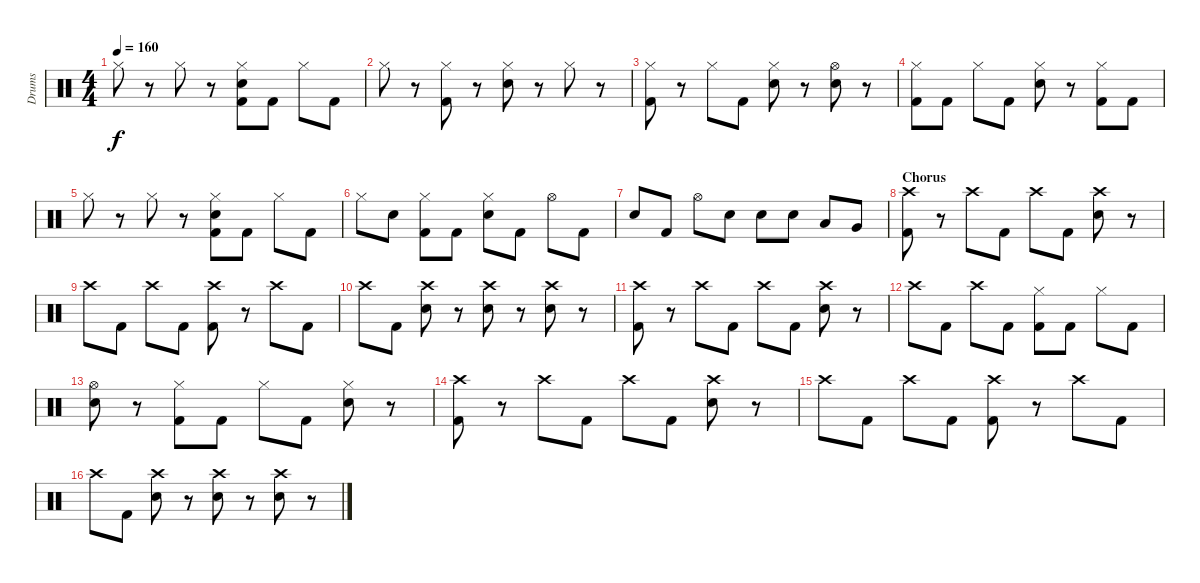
\track ("Drums" "Drums") {instrument percussion}
\staff {score}
\articulation defaults
\ts (4 4)
\tempo 160
\clef neutral
\ks c "Hi-Hat (closed)".8{dy f}
r.8 "Hi-Hat (closed)".8 r.8 ("Electric Snare (hit)" "Kick (hit) 2" "Hi-Hat (closed)").8 "Kick (hit) 2".8 "Hi-Hat (closed)".8 "Kick (hit) 2".8 |
"Hi-Hat (closed)".8 r.8 ("Kick (hit) 2" "Hi-Hat (closed)").8 r.8 ("Electric Snare (hit)" "Hi-Hat (closed)").8 r.8 "Hi-Hat (closed)".8 r.8 |
("Kick (hit) 2" "Hi-Hat (closed)").8 r.8 "Hi-Hat (closed)".8 "Kick (hit) 2".8 ("Electric Snare (hit)" "Hi-Hat (closed)").8 r.8 ("Electric Snare (hit)" "Hi-Hat (open)").8 r.8 |
("Kick (hit) 2" "Hi-Hat (closed)").8 "Kick (hit) 2".8 "Hi-Hat (closed)".8 "Kick (hit) 2".8 ("Electric Snare (hit)" "Hi-Hat (closed)").8 r.8 ("Kick (hit) 2" "Hi-Hat (closed)").8 "Kick (hit) 2".8 |
"Hi-Hat (closed)".8 r.8 "Hi-Hat (closed)".8 r.8 ("Electric Snare (hit)" "Kick (hit) 2" "Hi-Hat (closed)").8 "Kick (hit) 2".8 "Hi-Hat (closed)".8 "Kick (hit) 2".8 |
"Hi-Hat (closed)".8 "Electric Snare (hit)".8 ("Kick (hit) 2" "Hi-Hat (closed)").8 "Kick (hit) 2".8 ("Electric Snare (hit)" "Hi-Hat (closed)").8 "Kick (hit) 2".8 "Hi-Hat (open)".8 "Kick (hit) 2".8 |
"Electric Snare (hit)".8 "Kick (hit) 2".8 "Hi-Hat (open)".8 "Electric Snare (hit)".8 "Electric Snare (hit)".8 "Electric Snare (hit)".8 "Low Tom (hit)".8 "Very Low Tom (hit)".8 |
\section ("" "Chorus")
("Kick (hit) 2" "Crash high (hit)").8 r.8 "Crash high (hit)".8 "Kick (hit) 2".8 "Crash high (hit)".8 "Kick (hit) 2".8 ("Electric Snare (hit)" "Crash high (hit)").8 r.8 |
"Crash high (hit)".8 "Kick (hit) 2".8 "Crash high (hit)".8 "Kick (hit) 2".8 ("Kick (hit) 2" "Crash high (hit)").8 r.8 "Crash high (hit)".8 "Kick (hit) 2".8 |
"Crash high (hit)".8 "Kick (hit) 2".8 ("Electric Snare (hit)" "Crash high (hit)").8 r.8 ("Electric Snare (hit)" "Crash high (hit)").8 r.8 ("Electric Snare (hit)" "Crash high (hit)").8 r.8 |
("Kick (hit) 2" "Crash high (hit)").8 r.8 "Crash high (hit)".8 "Kick (hit) 2".8 "Crash high (hit)".8 "Kick (hit) 2".8 ("Electric Snare (hit)" "Crash high (hit)").8 r.8 |
"Crash high (hit)".8 "Kick (hit) 2".8 "Crash high (hit)".8 "Kick (hit) 2".8 ("Kick (hit) 2" "Hi-Hat (closed)").8 "Kick (hit) 2".8 "Hi-Hat (closed)".8 "Kick (hit) 2".8 |
("Electric Snare (hit)" "Hi-Hat (open)").8 r.8 ("Kick (hit) 2" "Hi-Hat (closed)").8 "Kick (hit) 2".8 "Hi-Hat (closed)".8 "Kick (hit) 2".8 ("Electric Snare (hit)" "Hi-Hat (closed)").8 r.8 |
("Kick (hit) 2" "Crash high (hit)").8 r.8 "Crash high (hit)".8 "Kick (hit) 2".8 "Crash high (hit)".8 "Kick (hit) 2".8 ("Electric Snare (hit)" "Crash high (hit)").8 r.8 |
"Crash high (hit)".8 "Kick (hit) 2".8 "Crash high (hit)".8 "Kick (hit) 2".8 ("Kick (hit) 2" "Crash high (hit)").8 r.8 "Crash high (hit)".8 "Kick (hit) 2".8 |
"Crash high (hit)".8 "Kick (hit) 2".8 ("Electric Snare (hit)" "Crash high (hit)").8 r.8 ("Electric Snare (hit)" "Crash high (hit)").8 r.8 ("Electric Snare (hit)" "Crash high (hit)").8 r.8
